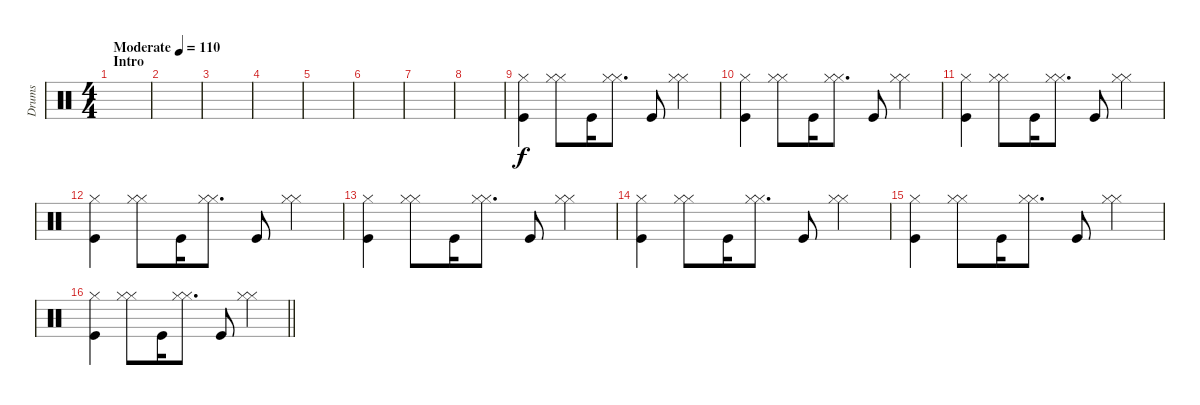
\track ("Drums" "Drums") {instrument percussion}
\staff {score}
\articulation defaults
\ts (4 4)
\section ("" "Intro")
\tempo (110 "Moderate")
\clef neutral
\ks c
|
|
|
|
|
|
|
|
("Hi-Hat (closed)" "Kick (hit)").4 ("Hi-Hat (closed)" "Hi-Hat (closed)").8 "Kick (hit)".16 ("Hi-Hat (closed)" "Hi-Hat (closed)").8{d} "Kick (hit)".8 ("Hi-Hat (closed)" "Hi-Hat (closed)").4 |
("Hi-Hat (closed)" "Kick (hit)").4 ("Hi-Hat (closed)" "Hi-Hat (closed)").8 "Kick (hit)".16 ("Hi-Hat (closed)" "Hi-Hat (closed)").8{d} "Kick (hit)".8 ("Hi-Hat (closed)" "Hi-Hat (closed)").4 |
("Hi-Hat (closed)" "Kick (hit)").4 ("Hi-Hat (closed)" "Hi-Hat (closed)").8 "Kick (hit)".16 ("Hi-Hat (closed)" "Hi-Hat (closed)").8{d} "Kick (hit)".8 ("Hi-Hat (closed)" "Hi-Hat (closed)").4 |
("Hi-Hat (closed)" "Kick (hit)").4 ("Hi-Hat (closed)" "Hi-Hat (closed)").8 "Kick (hit)".16 ("Hi-Hat (closed)" "Hi-Hat (closed)").8{d} "Kick (hit)".8 ("Hi-Hat (closed)" "Hi-Hat (closed)").4 |
("Hi-Hat (closed)" "Kick (hit)").4 ("Hi-Hat (closed)" "Hi-Hat (closed)").8 "Kick (hit)".16 ("Hi-Hat (closed)" "Hi-Hat (closed)").8{d} "Kick (hit)".8 ("Hi-Hat (closed)" "Hi-Hat (closed)").4 |
("Hi-Hat (closed)" "Kick (hit)").4 ("Hi-Hat (closed)" "Hi-Hat (closed)").8 "Kick (hit)".16 ("Hi-Hat (closed)" "Hi-Hat (closed)").8{d} "Kick (hit)".8 ("Hi-Hat (closed)" "Hi-Hat (closed)").4 |
("Hi-Hat (closed)" "Kick (hit)").4 ("Hi-Hat (closed)" "Hi-Hat (closed)").8 "Kick (hit)".16 ("Hi-Hat (closed)" "Hi-Hat (closed)").8{d} "Kick (hit)".8 ("Hi-Hat (closed)" "Hi-Hat (closed)").4 |
\barLineRight lightlight
("Hi-Hat (closed)" "Kick (hit)").4 ("Hi-Hat (closed)" "Hi-Hat (closed)").8 "Kick (hit)".16 ("Hi-Hat (closed)" "Hi-Hat (closed)").8{d} "Kick (hit)".8 ("Hi-Hat (closed)" "Hi-Hat (closed)").4
